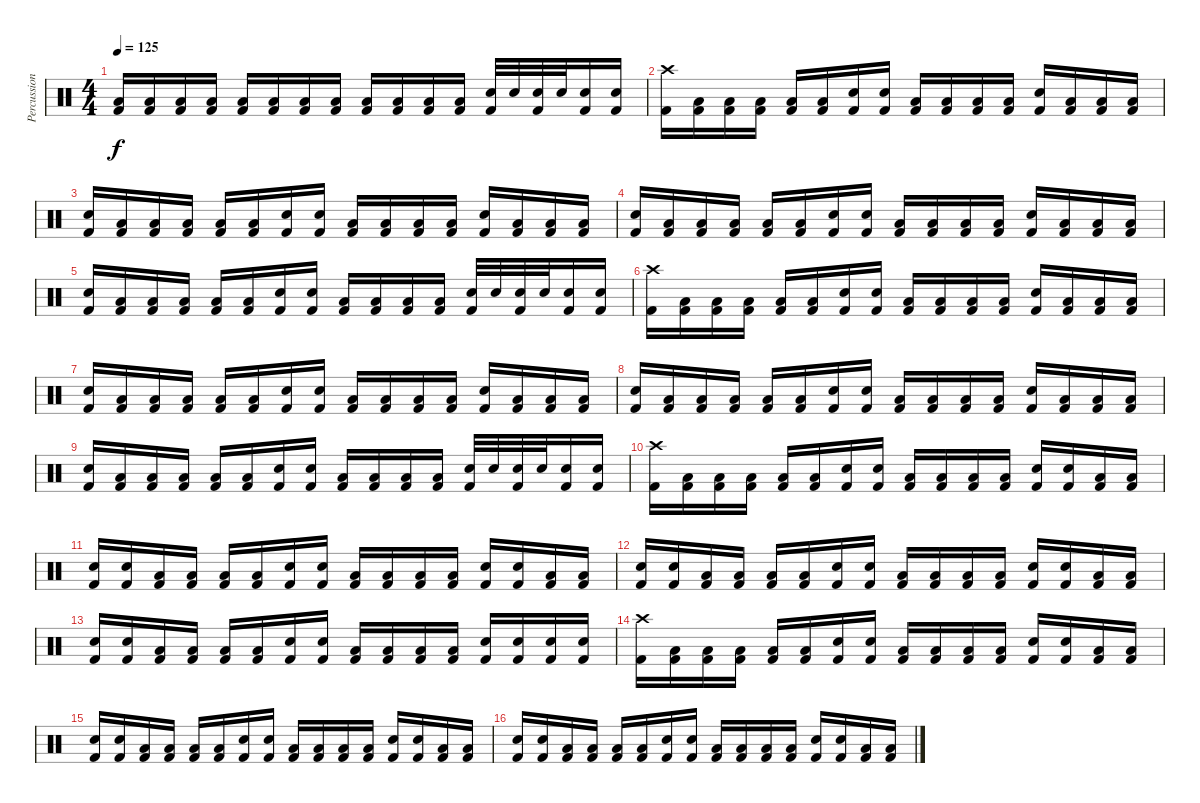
\track ("Percussion" "Percussion") {mute instrument percussion}
\staff {score}
\articulation defaults
\ts (4 4)
\tempo 125
\clef neutral
\ks c
("Low Tom (hit)" "Kick (hit) 2").16{dy f} ("Low Tom (hit)" "Kick (hit) 2").16 ("Low Tom (hit)" "Kick (hit) 2").16 ("Low Tom (hit)" "Kick (hit) 2").16 ("Low Tom (hit)" "Kick (hit) 2").16 ("Low Tom (hit)" "Kick (hit) 2").16 ("Low Tom (hit)" "Kick (hit) 2").16 ("Low Tom (hit)" "Kick (hit) 2").16 ("Low Tom (hit)" "Kick (hit) 2").16 ("Low Tom (hit)" "Kick (hit) 2").16 ("Low Tom (hit)" "Kick (hit) 2").16 ("Low Tom (hit)" "Kick (hit) 2").16 ("Electric Snare (hit)" "Kick (hit) 2").32 "Electric Snare (hit)".32 ("Electric Snare (hit)" "Kick (hit) 2").32 "Electric Snare (hit)".32 ("Electric Snare (hit)" "Kick (hit) 2").16 ("Electric Snare (hit)" "Kick (hit) 2").16 |
("Crash high (hit)" "Kick (hit) 2").16 ("Low Tom (hit)" "Kick (hit) 2").16 ("Low Tom (hit)" "Kick (hit) 2").16 ("Low Tom (hit)" "Kick (hit) 2").16 ("Low Tom (hit)" "Kick (hit) 2").16 ("Low Tom (hit)" "Kick (hit) 2").16 ("Electric Snare (hit)" "Kick (hit) 2").16 ("Electric Snare (hit)" "Kick (hit) 2").16 ("Low Tom (hit)" "Kick (hit) 2").16 ("Low Tom (hit)" "Kick (hit) 2").16 ("Low Tom (hit)" "Kick (hit) 2").16 ("Low Tom (hit)" "Kick (hit) 2").16 ("Electric Snare (hit)" "Kick (hit) 2").16 ("Low Tom (hit)" "Kick (hit) 2").16 ("Low Tom (hit)" "Kick (hit) 2").16 ("Low Tom (hit)" "Kick (hit) 2").16 |
("Electric Snare (hit)" "Kick (hit) 2").16 ("Low Tom (hit)" "Kick (hit) 2").16 ("Low Tom (hit)" "Kick (hit) 2").16 ("Low Tom (hit)" "Kick (hit) 2").16 ("Low Tom (hit)" "Kick (hit) 2").16 ("Low Tom (hit)" "Kick (hit) 2").16 ("Electric Snare (hit)" "Kick (hit) 2").16 ("Electric Snare (hit)" "Kick (hit) 2").16 ("Low Tom (hit)" "Kick (hit) 2").16 ("Low Tom (hit)" "Kick (hit) 2").16 ("Low Tom (hit)" "Kick (hit) 2").16 ("Low Tom (hit)" "Kick (hit) 2").16 ("Electric Snare (hit)" "Kick (hit) 2").16 ("Low Tom (hit)" "Kick (hit) 2").16 ("Low Tom (hit)" "Kick (hit) 2").16 ("Low Tom (hit)" "Kick (hit) 2").16 |
("Electric Snare (hit)" "Kick (hit) 2").16 ("Low Tom (hit)" "Kick (hit) 2").16 ("Low Tom (hit)" "Kick (hit) 2").16 ("Low Tom (hit)" "Kick (hit) 2").16 ("Low Tom (hit)" "Kick (hit) 2").16 ("Low Tom (hit)" "Kick (hit) 2").16 ("Electric Snare (hit)" "Kick (hit) 2").16 ("Electric Snare (hit)" "Kick (hit) 2").16 ("Low Tom (hit)" "Kick (hit) 2").16 ("Low Tom (hit)" "Kick (hit) 2").16 ("Low Tom (hit)" "Kick (hit) 2").16 ("Low Tom (hit)" "Kick (hit) 2").16 ("Electric Snare (hit)" "Kick (hit) 2").16 ("Low Tom (hit)" "Kick (hit) 2").16 ("Low Tom (hit)" "Kick (hit) 2").16 ("Low Tom (hit)" "Kick (hit) 2").16 |
("Electric Snare (hit)" "Kick (hit) 2").16 ("Low Tom (hit)" "Kick (hit) 2").16 ("Low Tom (hit)" "Kick (hit) 2").16 ("Low Tom (hit)" "Kick (hit) 2").16 ("Low Tom (hit)" "Kick (hit) 2").16 ("Low Tom (hit)" "Kick (hit) 2").16 ("Electric Snare (hit)" "Kick (hit) 2").16 ("Electric Snare (hit)" "Kick (hit) 2").16 ("Low Tom (hit)" "Kick (hit) 2").16 ("Low Tom (hit)" "Kick (hit) 2").16 ("Low Tom (hit)" "Kick (hit) 2").16 ("Low Tom (hit)" "Kick (hit) 2").16 ("Electric Snare (hit)" "Kick (hit) 2").32 "Electric Snare (hit)".32 ("Electric Snare (hit)" "Kick (hit) 2").32 "Electric Snare (hit)".32 ("Electric Snare (hit)" "Kick (hit) 2").16 ("Electric Snare (hit)" "Kick (hit) 2").16 |
("Crash high (hit)" "Kick (hit) 2").16 ("Low Tom (hit)" "Kick (hit) 2").16 ("Low Tom (hit)" "Kick (hit) 2").16 ("Low Tom (hit)" "Kick (hit) 2").16 ("Low Tom (hit)" "Kick (hit) 2").16 ("Low Tom (hit)" "Kick (hit) 2").16 ("Electric Snare (hit)" "Kick (hit) 2").16 ("Electric Snare (hit)" "Kick (hit) 2").16 ("Low Tom (hit)" "Kick (hit) 2").16 ("Low Tom (hit)" "Kick (hit) 2").16 ("Low Tom (hit)" "Kick (hit) 2").16 ("Low Tom (hit)" "Kick (hit) 2").16 ("Electric Snare (hit)" "Kick (hit) 2").16 ("Low Tom (hit)" "Kick (hit) 2").16 ("Low Tom (hit)" "Kick (hit) 2").16 ("Low Tom (hit)" "Kick (hit) 2").16 |
("Electric Snare (hit)" "Kick (hit) 2").16 ("Low Tom (hit)" "Kick (hit) 2").16 ("Low Tom (hit)" "Kick (hit) 2").16 ("Low Tom (hit)" "Kick (hit) 2").16 ("Low Tom (hit)" "Kick (hit) 2").16 ("Low Tom (hit)" "Kick (hit) 2").16 ("Electric Snare (hit)" "Kick (hit) 2").16 ("Electric Snare (hit)" "Kick (hit) 2").16 ("Low Tom (hit)" "Kick (hit) 2").16 ("Low Tom (hit)" "Kick (hit) 2").16 ("Low Tom (hit)" "Kick (hit) 2").16 ("Low Tom (hit)" "Kick (hit) 2").16 ("Electric Snare (hit)" "Kick (hit) 2").16 ("Low Tom (hit)" "Kick (hit) 2").16 ("Low Tom (hit)" "Kick (hit) 2").16 ("Low Tom (hit)" "Kick (hit) 2").16 |
("Electric Snare (hit)" "Kick (hit) 2").16 ("Low Tom (hit)" "Kick (hit) 2").16 ("Low Tom (hit)" "Kick (hit) 2").16 ("Low Tom (hit)" "Kick (hit) 2").16 ("Low Tom (hit)" "Kick (hit) 2").16 ("Low Tom (hit)" "Kick (hit) 2").16 ("Electric Snare (hit)" "Kick (hit) 2").16 ("Electric Snare (hit)" "Kick (hit) 2").16 ("Low Tom (hit)" "Kick (hit) 2").16 ("Low Tom (hit)" "Kick (hit) 2").16 ("Low Tom (hit)" "Kick (hit) 2").16 ("Low Tom (hit)" "Kick (hit) 2").16 ("Electric Snare (hit)" "Kick (hit) 2").16 ("Low Tom (hit)" "Kick (hit) 2").16 ("Low Tom (hit)" "Kick (hit) 2").16 ("Low Tom (hit)" "Kick (hit) 2").16 |
("Electric Snare (hit)" "Kick (hit) 2").16 ("Low Tom (hit)" "Kick (hit) 2").16 ("Low Tom (hit)" "Kick (hit) 2").16 ("Low Tom (hit)" "Kick (hit) 2").16 ("Low Tom (hit)" "Kick (hit) 2").16 ("Low Tom (hit)" "Kick (hit) 2").16 ("Electric Snare (hit)" "Kick (hit) 2").16 ("Electric Snare (hit)" "Kick (hit) 2").16 ("Low Tom (hit)" "Kick (hit) 2").16 ("Low Tom (hit)" "Kick (hit) 2").16 ("Low Tom (hit)" "Kick (hit) 2").16 ("Low Tom (hit)" "Kick (hit) 2").16 ("Electric Snare (hit)" "Kick (hit) 2").32 "Electric Snare (hit)".32 ("Electric Snare (hit)" "Kick (hit) 2").32 "Electric Snare (hit)".32 ("Electric Snare (hit)" "Kick (hit) 2").16 ("Electric Snare (hit)" "Kick (hit) 2").16 |
("Crash high (hit)" "Kick (hit) 2").16 ("Low Tom (hit)" "Kick (hit) 2").16 ("Low Tom (hit)" "Kick (hit) 2").16 ("Low Tom (hit)" "Kick (hit) 2").16 ("Low Tom (hit)" "Kick (hit) 2").16 ("Low Tom (hit)" "Kick (hit) 2").16 ("Electric Snare (hit)" "Kick (hit) 2").16 ("Electric Snare (hit)" "Kick (hit) 2").16 ("Low Tom (hit)" "Kick (hit) 2").16 ("Low Tom (hit)" "Kick (hit) 2").16 ("Low Tom (hit)" "Kick (hit) 2").16 ("Low Tom (hit)" "Kick (hit) 2").16 ("Electric Snare (hit)" "Kick (hit) 2").16 ("Electric Snare (hit)" "Kick (hit) 2").16 ("Low Tom (hit)" "Kick (hit) 2").16 ("Low Tom (hit)" "Kick (hit) 2").16 |
("Electric Snare (hit)" "Kick (hit) 2").16 ("Electric Snare (hit)" "Kick (hit) 2").16 ("Low Tom (hit)" "Kick (hit) 2").16 ("Low Tom (hit)" "Kick (hit) 2").16 ("Low Tom (hit)" "Kick (hit) 2").16 ("Low Tom (hit)" "Kick (hit) 2").16 ("Electric Snare (hit)" "Kick (hit) 2").16 ("Electric Snare (hit)" "Kick (hit) 2").16 ("Low Tom (hit)" "Kick (hit) 2").16 ("Low Tom (hit)" "Kick (hit) 2").16 ("Low Tom (hit)" "Kick (hit) 2").16 ("Low Tom (hit)" "Kick (hit) 2").16 ("Electric Snare (hit)" "Kick (hit) 2").16 ("Electric Snare (hit)" "Kick (hit) 2").16 ("Low Tom (hit)" "Kick (hit) 2").16 ("Low Tom (hit)" "Kick (hit) 2").16 |
("Electric Snare (hit)" "Kick (hit) 2").16 ("Electric Snare (hit)" "Kick (hit) 2").16 ("Low Tom (hit)" "Kick (hit) 2").16 ("Low Tom (hit)" "Kick (hit) 2").16 ("Low Tom (hit)" "Kick (hit) 2").16 ("Low Tom (hit)" "Kick (hit) 2").16 ("Electric Snare (hit)" "Kick (hit) 2").16 ("Electric Snare (hit)" "Kick (hit) 2").16 ("Low Tom (hit)" "Kick (hit) 2").16 ("Low Tom (hit)" "Kick (hit) 2").16 ("Low Tom (hit)" "Kick (hit) 2").16 ("Low Tom (hit)" "Kick (hit) 2").16 ("Electric Snare (hit)" "Kick (hit) 2").16 ("Electric Snare (hit)" "Kick (hit) 2").16 ("Low Tom (hit)" "Kick (hit) 2").16 ("Low Tom (hit)" "Kick (hit) 2").16 |
("Electric Snare (hit)" "Kick (hit) 2").16 ("Electric Snare (hit)" "Kick (hit) 2").16 ("Low Tom (hit)" "Kick (hit) 2").16 ("Low Tom (hit)" "Kick (hit) 2").16 ("Low Tom (hit)" "Kick (hit) 2").16 ("Low Tom (hit)" "Kick (hit) 2").16 ("Electric Snare (hit)" "Kick (hit) 2").16 ("Electric Snare (hit)" "Kick (hit) 2").16 ("Low Tom (hit)" "Kick (hit) 2").16 ("Low Tom (hit)" "Kick (hit) 2").16 ("Low Tom (hit)" "Kick (hit) 2").16 ("Low Tom (hit)" "Kick (hit) 2").16 ("Electric Snare (hit)" "Kick (hit) 2").16 ("Electric Snare (hit)" "Kick (hit) 2").16 ("Electric Snare (hit)" "Kick (hit) 2").16 ("Electric Snare (hit)" "Kick (hit) 2").16 |
("Crash high (hit)" "Kick (hit) 2").16 ("Low Tom (hit)" "Kick (hit) 2").16 ("Low Tom (hit)" "Kick (hit) 2").16 ("Low Tom (hit)" "Kick (hit) 2").16 ("Low Tom (hit)" "Kick (hit) 2").16 ("Low Tom (hit)" "Kick (hit) 2").16 ("Electric Snare (hit)" "Kick (hit) 2").16 ("Electric Snare (hit)" "Kick (hit) 2").16 ("Low Tom (hit)" "Kick (hit) 2").16 ("Low Tom (hit)" "Kick (hit) 2").16 ("Low Tom (hit)" "Kick (hit) 2").16 ("Low Tom (hit)" "Kick (hit) 2").16 ("Electric Snare (hit)" "Kick (hit) 2").16 ("Electric Snare (hit)" "Kick (hit) 2").16 ("Low Tom (hit)" "Kick (hit) 2").16 ("Low Tom (hit)" "Kick (hit) 2").16 |
("Electric Snare (hit)" "Kick (hit) 2").16 ("Electric Snare (hit)" "Kick (hit) 2").16 ("Low Tom (hit)" "Kick (hit) 2").16 ("Low Tom (hit)" "Kick (hit) 2").16 ("Low Tom (hit)" "Kick (hit) 2").16 ("Low Tom (hit)" "Kick (hit) 2").16 ("Electric Snare (hit)" "Kick (hit) 2").16 ("Electric Snare (hit)" "Kick (hit) 2").16 ("Low Tom (hit)" "Kick (hit) 2").16 ("Low Tom (hit)" "Kick (hit) 2").16 ("Low Tom (hit)" "Kick (hit) 2").16 ("Low Tom (hit)" "Kick (hit) 2").16 ("Electric Snare (hit)" "Kick (hit) 2").16 ("Electric Snare (hit)" "Kick (hit) 2").16 ("Low Tom (hit)" "Kick (hit) 2").16 ("Low Tom (hit)" "Kick (hit) 2").16 |
("Electric Snare (hit)" "Kick (hit) 2").16 ("Electric Snare (hit)" "Kick (hit) 2").16 ("Low Tom (hit)" "Kick (hit) 2").16 ("Low Tom (hit)" "Kick (hit) 2").16 ("Low Tom (hit)" "Kick (hit) 2").16 ("Low Tom (hit)" "Kick (hit) 2").16 ("Electric Snare (hit)" "Kick (hit) 2").16 ("Electric Snare (hit)" "Kick (hit) 2").16 ("Low Tom (hit)" "Kick (hit) 2").16 ("Low Tom (hit)" "Kick (hit) 2").16 ("Low Tom (hit)" "Kick (hit) 2").16 ("Low Tom (hit)" "Kick (hit) 2").16 ("Electric Snare (hit)" "Kick (hit) 2").16 ("Electric Snare (hit)" "Kick (hit) 2").16 ("Low Tom (hit)" "Kick (hit) 2").16 ("Low Tom (hit)" "Kick (hit) 2").16
